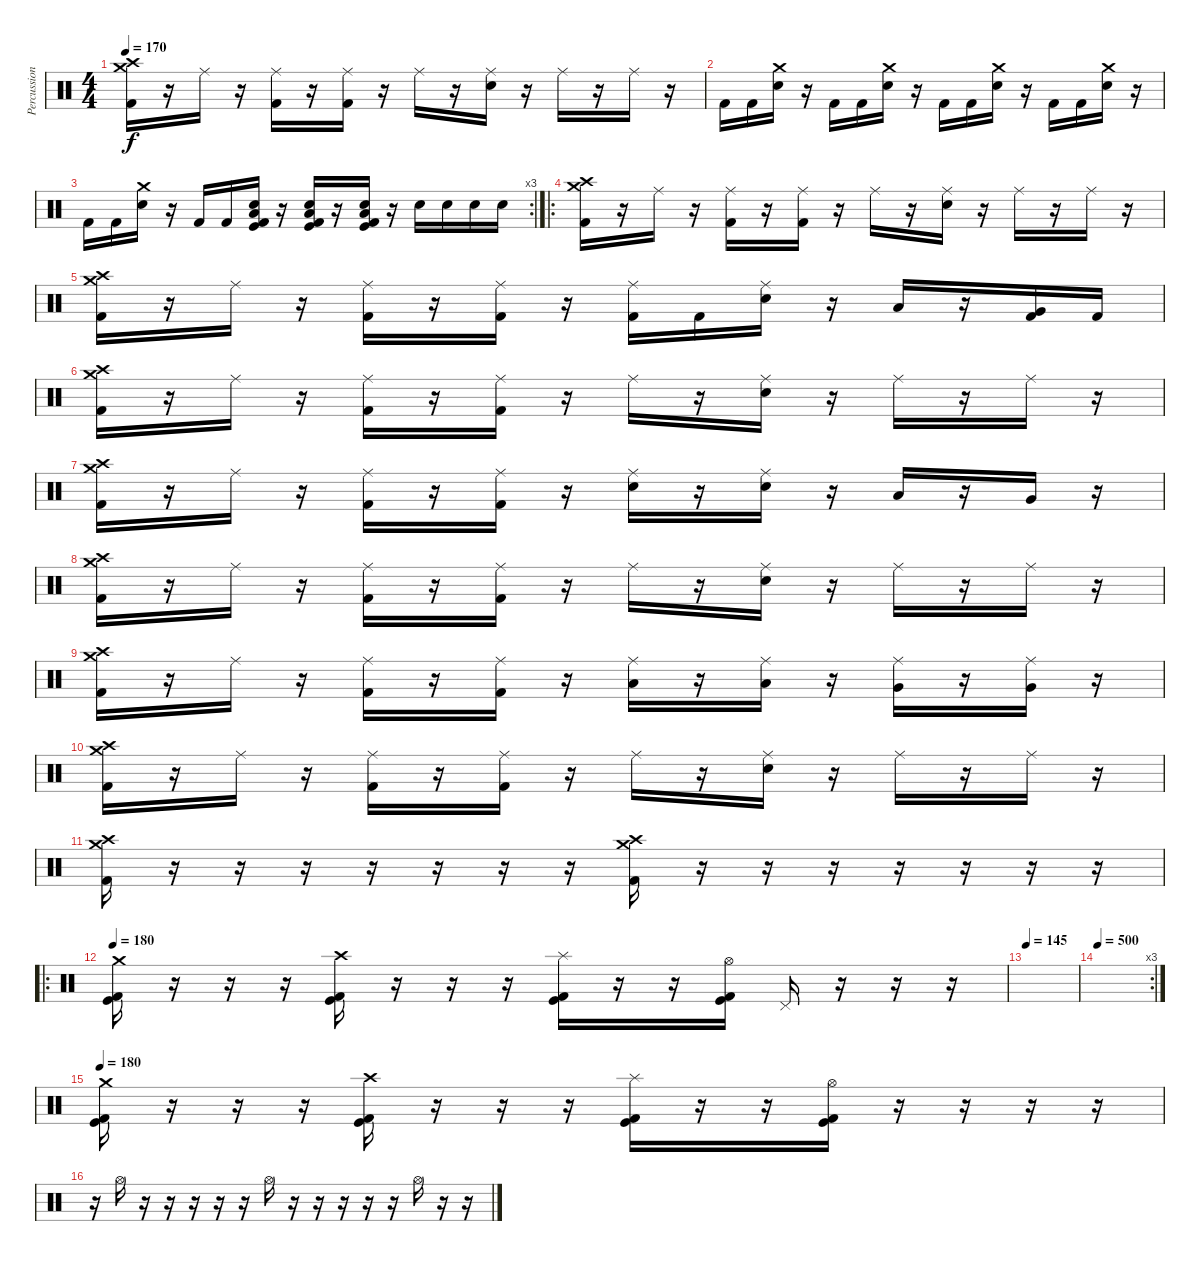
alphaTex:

\track ("Percussion" "Percussion") {instrument percussion}
\staff {score}
\articulation defaults
\ts (4 4)
\tempo 170
\clef neutral
\ks c
("Crash medium (hit)" "Crash high (hit)" "Kick (hit) 2").16{dy f} r.16 "Ride (middle)".16 r.16 ("Ride (middle)" "Kick (hit) 2").16 r.16 ("Ride (middle)" "Kick (hit) 2").16 r.16 "Ride (middle)".16 r.16 ("Ride (middle)" "Electric Snare (hit)").16 r.16 "Ride (middle)".16 r.16 "Ride (middle)".16 r.16 |
"Kick (hit) 2".16 "Kick (hit) 2".16 ("Crash medium (hit)" "Electric Snare (hit)").16 r.16 "Kick (hit) 2".16 "Kick (hit) 2".16 ("Crash medium (hit)" "Electric Snare (hit)").16 r.16 "Kick (hit) 2".16 "Kick (hit) 2".16 ("Crash medium (hit)" "Electric Snare (hit)").16 r.16 "Kick (hit) 2".16 "Kick (hit) 2".16 ("Crash medium (hit)" "Electric Snare (hit)").16 r.16 |
\rc 3 "Kick (hit) 2".16 "Kick (hit) 2".16
("Crash medium (hit)" "Electric Snare (hit)").16 r.16 "Kick (hit) 2".16 "Kick (hit) 2".16 ("Kick (hit)" "Kick (hit) 2" "Electric Snare (hit)" "Low Floor Tom (hit)").16 r.16 ("Kick (hit)" "Kick (hit) 2" "Electric Snare (hit)" "Low Floor Tom (hit)").16 r.16 ("Kick (hit)" "Kick (hit) 2" "Electric Snare (hit)" "Low Floor Tom (hit)").16 r.16 "Electric Snare (hit)".16 "Electric Snare (hit)".16 "Electric Snare (hit)".16 "Electric Snare (hit)".16 |
\ro
("Crash medium (hit)" "Crash high (hit)" "Kick (hit) 2").16 r.16 "Ride (middle)".16 r.16 ("Ride (middle)" "Kick (hit) 2").16 r.16 ("Ride (middle)" "Kick (hit) 2").16 r.16 "Ride (middle)".16 r.16 ("Ride (middle)" "Electric Snare (hit)").16 r.16 "Ride (middle)".16 r.16 "Ride (middle)".16 r.16 |
("Crash medium (hit)" "Crash high (hit)" "Kick (hit) 2").16 r.16 "Ride (middle)".16 r.16 ("Ride (middle)" "Kick (hit) 2").16 r.16 ("Ride (middle)" "Kick (hit) 2").16 r.16 ("Ride (middle)" "Kick (hit) 2").16 "Kick (hit) 2".16 ("Ride (middle)" "Electric Snare (hit)").16 r.16 "Low Tom (hit)".16 r.16 ("Very Low Tom (hit)" "Kick (hit) 2").16 "Kick (hit) 2".16 |
("Crash medium (hit)" "Crash high (hit)" "Kick (hit) 2").16 r.16 "Ride (middle)".16 r.16 ("Ride (middle)" "Kick (hit) 2").16 r.16 ("Ride (middle)" "Kick (hit) 2").16 r.16 "Ride (middle)".16 r.16 ("Ride (middle)" "Electric Snare (hit)").16 r.16 "Ride (middle)".16 r.16 "Ride (middle)".16 r.16 |
("Crash medium (hit)" "Crash high (hit)" "Kick (hit) 2").16 r.16 "Ride (middle)".16 r.16 ("Ride (middle)" "Kick (hit) 2").16 r.16 ("Ride (middle)" "Kick (hit) 2").16 r.16 ("Ride (middle)" "Electric Snare (hit)").16 r.16 ("Ride (middle)" "Electric Snare (hit)").16 r.16 "Low Tom (hit)".16 r.16 "Very Low Tom (hit)".16 r.16 |
("Crash medium (hit)" "Crash high (hit)" "Kick (hit) 2").16 r.16 "Ride (middle)".16 r.16 ("Ride (middle)" "Kick (hit) 2").16 r.16 ("Ride (middle)" "Kick (hit) 2").16 r.16 "Ride (middle)".16 r.16 ("Ride (middle)" "Electric Snare (hit)").16 r.16 "Ride (middle)".16 r.16 "Ride (middle)".16 r.16 |
("Crash medium (hit)" "Crash high (hit)" "Kick (hit) 2").16 r.16 "Ride (middle)".16 r.16 ("Ride (middle)" "Kick (hit) 2").16 r.16 ("Ride (middle)" "Kick (hit) 2").16 r.16 ("Ride (middle)" "Low Tom (hit)").16 r.16 ("Ride (middle)" "Low Tom (hit)").16 r.16 ("Ride (middle)" "Very Low Tom (hit)").16 r.16 ("Ride (middle)" "Very Low Tom (hit)").16 r.16 |
("Crash medium (hit)" "Crash high (hit)" "Kick (hit) 2").16 r.16 "Ride (middle)".16 r.16 ("Ride (middle)" "Kick (hit) 2").16 r.16 ("Ride (middle)" "Kick (hit) 2").16 r.16 "Ride (middle)".16 r.16 ("Ride (middle)" "Electric Snare (hit)").16 r.16 "Ride (middle)".16 r.16 "Ride (middle)".16 r.16 |
("Crash medium (hit)" "Crash high (hit)" "Kick (hit) 2").16 r.16 r.16 r.16 r.16 r.16 r.16 r.16 ("Crash medium (hit)" "Crash high (hit)" "Kick (hit) 2").16 r.16 r.16 r.16 r.16 r.16 r.16 r.16 |
\ro
\tempo 180
("Crash medium (hit)" "Kick (hit)" "Kick (hit) 2").16 r.16 r.16 r.16 ("Crash high (hit)" "Kick (hit)" "Kick (hit) 2").16 r.16 r.16 r.16 ("Splash (hit)" "Kick (hit)" "Kick (hit) 2").16 r.16 r.16 ("Hi-Hat (open)" "Kick (hit)" "Kick (hit) 2").16 "Pedal Hi-Hat (hit)".16 r.16 r.16 r.16 |
\tempo 145
|
\rc 3
\tempo 500
|
\tempo 200
\tempo 180
("Crash medium (hit)" "Kick (hit)" "Kick (hit) 2").16 r.16 r.16 r.16 ("Crash high (hit)" "Kick (hit)" "Kick (hit) 2").16 r.16 r.16 r.16 ("Splash (hit)" "Kick (hit)" "Kick (hit) 2").16 r.16 r.16 ("Hi-Hat (open)" "Kick (hit)" "Kick (hit) 2").16 r.16 r.16 r.16 r.16 |
r.16 "Hi-Hat (open)".16 r.16 r.16 r.16 r.16 r.16 "Hi-Hat (open)".16 r.16 r.16 r.16 r.16 r.16 "Hi-Hat (open)".16 r.16 r.16
